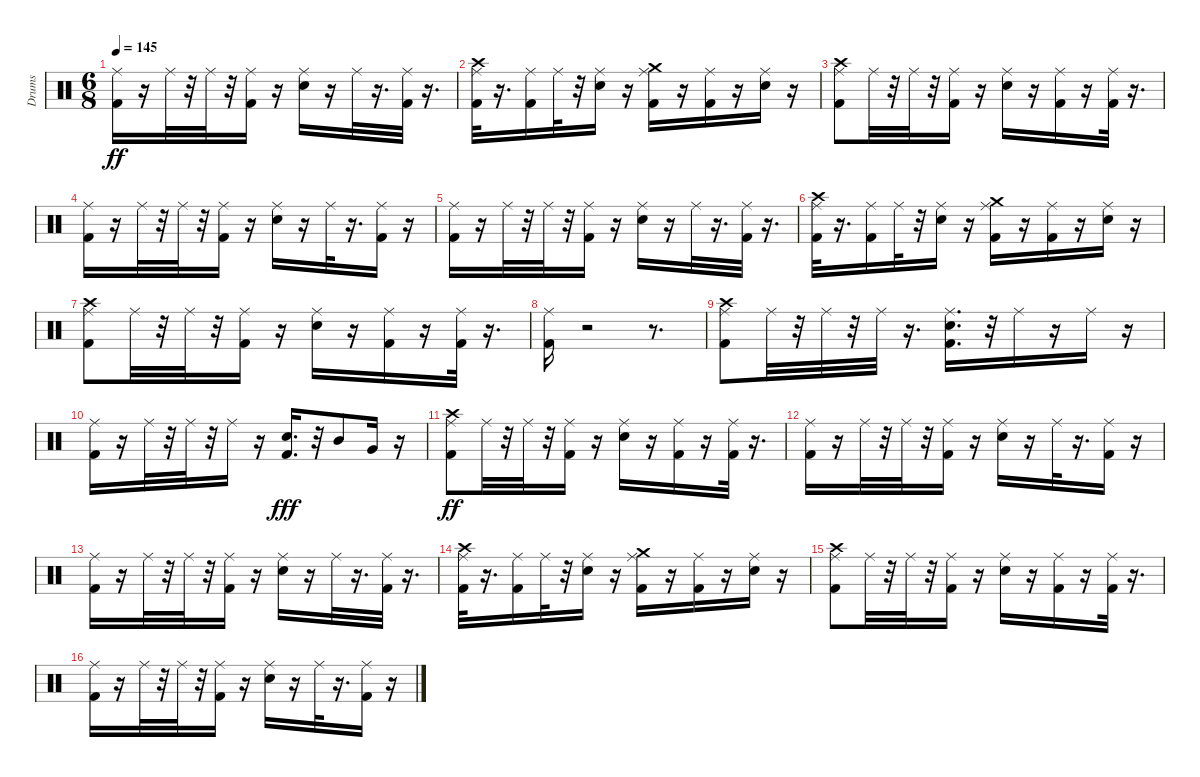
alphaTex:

\track ("Drums" "Drums") {instrument percussion}
\staff {score}
\articulation defaults
\ts (6 8)
\tempo 145
\clef neutral
\ks c
("Kick (hit) 2" "Ride (middle)").16{dy ff} r.16 "Ride (middle)".32 r.32 "Ride (middle)".32 r.32 ("Kick (hit) 2" "Ride (middle)").16 r.16 ("Snare (hit) 2" "Ride (middle)").16 r.16 "Ride (middle)".32 r.16{d} ("Kick (hit) 2" "Ride (middle)").32 r.16{d} |
("Kick (hit) 2" "Ride (middle)" "Crash high (hit)").32 r.16{d} ("Kick (hit) 2" "Ride (middle)").16 "Ride (middle)".32 r.32 ("Snare (hit) 2" "Ride (middle)").16 r.16 ("Kick (hit) 2" "Ride (middle)" "Crash medium (hit)").16 r.16 ("Kick (hit) 2" "Ride (middle)").16 r.16 ("Snare (hit) 2" "Ride (middle)").16 r.16 |
("Kick (hit) 2" "Ride (middle)" "Crash high (hit)").8 "Ride (middle)".32 r.32 "Ride (middle)".32 r.32 ("Kick (hit) 2" "Ride (middle)").16 r.16 ("Snare (hit) 2" "Ride (middle)").16 r.16 ("Kick (hit) 2" "Ride (middle)").16 r.16 ("Kick (hit) 2" "Ride (middle)").32 r.16{d} |
("Kick (hit) 2" "Ride (middle)").16 r.16 "Ride (middle)".32 r.32 "Ride (middle)".32 r.32 ("Kick (hit) 2" "Ride (middle)").16 r.16 ("Snare (hit) 2" "Ride (middle)").16 r.16 "Ride (middle)".32 r.16{d} ("Kick (hit) 2" "Ride (middle)").16 r.16 |
("Kick (hit) 2" "Ride (middle)").16 r.16 "Ride (middle)".32 r.32 "Ride (middle)".32 r.32 ("Kick (hit) 2" "Ride (middle)").16 r.16 ("Snare (hit) 2" "Ride (middle)").16 r.16 "Ride (middle)".32 r.16{d} ("Kick (hit) 2" "Ride (middle)").32 r.16{d} |
("Kick (hit) 2" "Ride (middle)" "Crash high (hit)").32 r.16{d} ("Kick (hit) 2" "Ride (middle)").16 "Ride (middle)".32 r.32 ("Snare (hit) 2" "Ride (middle)").16 r.16 ("Kick (hit) 2" "Ride (middle)" "Crash medium (hit)").16 r.16 ("Kick (hit) 2" "Ride (middle)").16 r.16 ("Snare (hit) 2" "Ride (middle)").16 r.16 |
("Kick (hit) 2" "Ride (middle)" "Crash high (hit)").8 "Ride (middle)".32 r.32 "Ride (middle)".32 r.32 ("Kick (hit) 2" "Ride (middle)").16 r.16 ("Snare (hit) 2" "Ride (middle)").16 r.16 ("Kick (hit) 2" "Ride (middle)").16 r.16 ("Kick (hit) 2" "Ride (middle)").32 r.16{d} |
("Kick (hit) 2" "Ride (middle)").16 r.2 r.8{d} |
("Kick (hit) 2" "Ride (middle)" "Crash high (hit)").8 "Ride (middle)".32 r.32 "Ride (middle)".32 r.32 "Ride (middle)".32 r.16{d} ("Kick (hit) 2" "Snare (hit) 2" "Ride (middle)").16{d} r.32 "Ride (middle)".16 r.16 "Ride (middle)".16 r.16 |
("Kick (hit) 2" "Ride (middle)").16 r.16 "Ride (middle)".32 r.32 "Ride (middle)".32 r.32 "Ride (middle)".16 r.16 ("Kick (hit) 2" "Snare (hit) 2").16{d dy fff} r.32 "Mid Tom (hit)".8 "Very Low Tom (hit)".16 r.16 |
("Kick (hit) 2" "Ride (middle)" "Crash high (hit)").8{dy ff} "Ride (middle)".32 r.32 "Ride (middle)".32 r.32 ("Kick (hit) 2" "Ride (middle)").16 r.16 ("Snare (hit) 2" "Ride (middle)").16 r.16 ("Kick (hit) 2" "Ride (middle)").16 r.16 ("Kick (hit) 2" "Ride (middle)").32 r.16{d} |
("Kick (hit) 2" "Ride (middle)").16 r.16 "Ride (middle)".32 r.32 "Ride (middle)".32 r.32 ("Kick (hit) 2" "Ride (middle)").16 r.16 ("Snare (hit) 2" "Ride (middle)").16 r.16 "Ride (middle)".32 r.16{d} ("Kick (hit) 2" "Ride (middle)").16 r.16 |
("Kick (hit) 2" "Ride (middle)").16 r.16 "Ride (middle)".32 r.32 "Ride (middle)".32 r.32 ("Kick (hit) 2" "Ride (middle)").16 r.16 ("Snare (hit) 2" "Ride (middle)").16 r.16 "Ride (middle)".32 r.16{d} ("Kick (hit) 2" "Ride (middle)").32 r.16{d} |
("Kick (hit) 2" "Ride (middle)" "Crash high (hit)").32 r.16{d} ("Kick (hit) 2" "Ride (middle)").16 "Ride (middle)".32 r.32 ("Snare (hit) 2" "Ride (middle)").16 r.16 ("Kick (hit) 2" "Ride (middle)" "Crash medium (hit)").16 r.16 ("Kick (hit) 2" "Ride (middle)").16 r.16 ("Snare (hit) 2" "Ride (middle)").16 r.16 |
("Kick (hit) 2" "Ride (middle)" "Crash high (hit)").8 "Ride (middle)".32 r.32 "Ride (middle)".32 r.32 ("Kick (hit) 2" "Ride (middle)").16 r.16 ("Snare (hit) 2" "Ride (middle)").16 r.16 ("Kick (hit) 2" "Ride (middle)").16 r.16 ("Kick (hit) 2" "Ride (middle)").32 r.16{d} |
("Kick (hit) 2" "Ride (middle)").16 r.16 "Ride (middle)".32 r.32 "Ride (middle)".32 r.32 ("Kick (hit) 2" "Ride (middle)").16 r.16 ("Snare (hit) 2" "Ride (middle)").16 r.16 "Ride (middle)".32 r.16{d} ("Kick (hit) 2" "Ride (middle)").16 r.16
